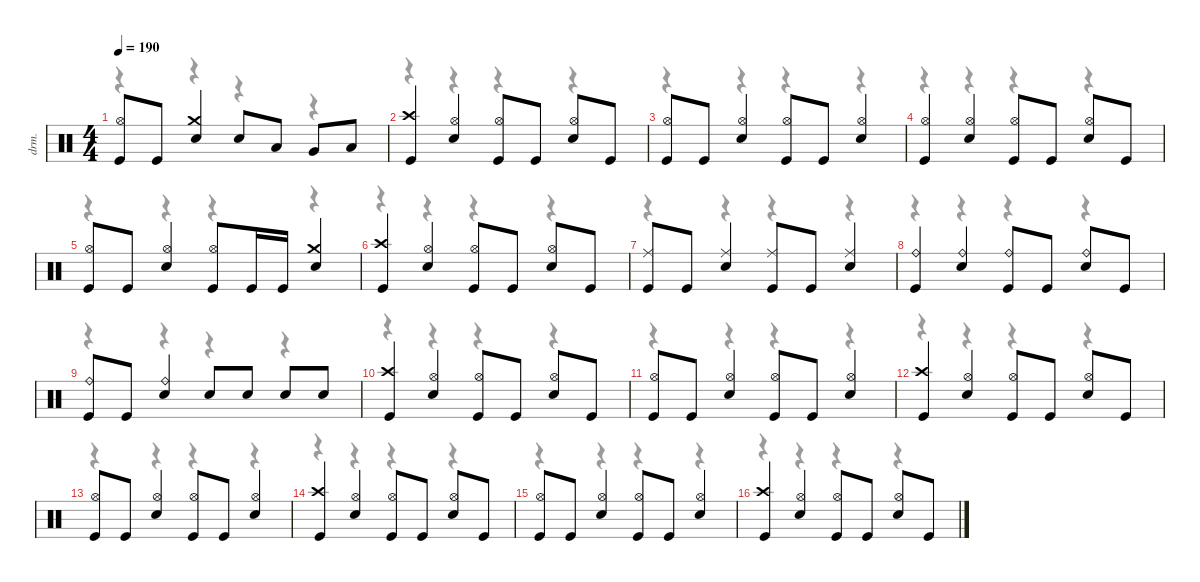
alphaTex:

\defaultSystemsLayout 4
\hideDynamics
\bracketExtendMode nobrackets
\track ("Drums" "drm.") {instrument percussion}
\staff {score}
\articulation defaults
\voice
\ts (4 4)
\tempo 190
\clef neutral
\ks c
("Hi-Hat (open)" "Kick (hit)").8{dy f beam Up} "Kick (hit)".8{beam Up} ("Crash medium (hit)" "Snare (hit) 2").4{beam Up} "Snare (hit) 2".8{beam Up} "Low Tom (hit)".8{beam Up} "Very Low Tom (hit)".8{beam Up} "Low Floor Tom (hit)".8{beam Up} |
("Crash high (hit)" "Kick (hit)").4{beam Up} ("Hi-Hat (open)" "Snare (hit) 2").4{beam Up} ("Hi-Hat (open)" "Kick (hit)").8{beam Up} "Kick (hit)".8{beam Up} ("Hi-Hat (open)" "Snare (hit) 2").8{beam Up} "Kick (hit)".8{beam Up} |
("Hi-Hat (open)" "Kick (hit)").8{beam Up} "Kick (hit)".8{beam Up} ("Hi-Hat (open)" "Snare (hit) 2").4{beam Up} ("Hi-Hat (open)" "Kick (hit)").8{beam Up} "Kick (hit)".8{beam Up} ("Hi-Hat (open)" "Snare (hit) 2").4{beam Up} |
("Hi-Hat (open)" "Kick (hit)").4{beam Up} ("Hi-Hat (open)" "Snare (hit) 2").4{beam Up} ("Hi-Hat (open)" "Kick (hit)").8{beam Up} "Kick (hit)".8{beam Up} ("Hi-Hat (open)" "Snare (hit) 2").8{beam Up} "Kick (hit)".8{beam Up} |
("Hi-Hat (open)" "Kick (hit)").8 "Kick (hit)".8 ("Hi-Hat (open)" "Snare (hit) 2").4 ("Hi-Hat (open)" "Kick (hit)").8 "Kick (hit)".16 "Kick (hit)".16 ("Crash medium (hit)" "Snare (hit) 2").4 |
("Crash high (hit)" "Kick (hit)").4 ("Hi-Hat (open)" "Snare (hit) 2").4 ("Hi-Hat (open)" "Kick (hit)").8 "Kick (hit)".8 ("Hi-Hat (open)" "Snare (hit) 2").8 "Kick (hit)".8 |
("Ride (middle)" "Kick (hit)").8 "Kick (hit)".8 ("Ride (middle)" "Snare (hit) 2").4 ("Ride (middle)" "Kick (hit)").8 "Kick (hit)".8 ("Ride (middle)" "Snare (hit) 2").4 |
("Ride (bell)" "Kick (hit)").4 ("Ride (bell)" "Snare (hit) 2").4 ("Ride (bell)" "Kick (hit)").8 "Kick (hit)".8 ("Ride (bell)" "Snare (hit) 2").8 "Kick (hit)".8 |
("Ride (bell)" "Kick (hit)").8 "Kick (hit)".8 ("Ride (bell)" "Snare (hit) 2").4 "Snare (hit) 2".8 "Snare (hit) 2".8 "Snare (hit) 2".8 "Snare (hit) 2".8 |
("Crash high (hit)" "Kick (hit)").4 ("Hi-Hat (open)" "Snare (hit) 2").4 ("Hi-Hat (open)" "Kick (hit)").8 "Kick (hit)".8 ("Hi-Hat (open)" "Snare (hit) 2").8 "Kick (hit)".8 |
("Hi-Hat (open)" "Kick (hit)").8 "Kick (hit)".8 ("Hi-Hat (open)" "Snare (hit) 2").4 ("Hi-Hat (open)" "Kick (hit)").8 "Kick (hit)".8 ("Hi-Hat (open)" "Snare (hit) 2").4 |
("Crash high (hit)" "Kick (hit)").4 ("Hi-Hat (open)" "Snare (hit) 2").4 ("Hi-Hat (open)" "Kick (hit)").8 "Kick (hit)".8 ("Hi-Hat (open)" "Snare (hit) 2").8 "Kick (hit)".8 |
("Hi-Hat (open)" "Kick (hit)").8 "Kick (hit)".8 ("Hi-Hat (open)" "Snare (hit) 2").4 ("Hi-Hat (open)" "Kick (hit)").8 "Kick (hit)".8 ("Hi-Hat (open)" "Snare (hit) 2").4 |
("Crash high (hit)" "Kick (hit)").4 ("Hi-Hat (open)" "Snare (hit) 2").4 ("Hi-Hat (open)" "Kick (hit)").8 "Kick (hit)".8 ("Hi-Hat (open)" "Snare (hit) 2").8 "Kick (hit)".8 |
("Hi-Hat (open)" "Kick (hit)").8 "Kick (hit)".8 ("Hi-Hat (open)" "Snare (hit) 2").4 ("Hi-Hat (open)" "Kick (hit)").8 "Kick (hit)".8 ("Hi-Hat (open)" "Snare (hit) 2").4 |
("Crash high (hit)" "Kick (hit)").4 ("Hi-Hat (open)" "Snare (hit) 2").4 ("Hi-Hat (open)" "Kick (hit)").8 "Kick (hit)".8 ("Hi-Hat (open)" "Snare (hit) 2").8 "Kick (hit)".8
\voice
\clef neutral
\ottava regular
\simile none
\ks c
r.4{dy mf beam Down} r.4{beam Down} r.4{beam Down} r.4{beam Down} |
r.4{beam Down} r.4{beam Down} r.4{beam Down} r.4{beam Down} |
r.4{beam Down} r.4{beam Down} r.4{beam Down} r.4{beam Down} |
r.4{beam Down} r.4{beam Down} r.4{beam Down} r.4{beam Down} |
r.4 r.4 r.4 r.4 |
r.4 r.4 r.4 r.4 |
r.4 r.4 r.4 r.4 |
r.4 r.4 r.4 r.4 |
r.4 r.4 r.4 r.4 |
r.4 r.4 r.4 r.4 |
r.4 r.4 r.4 r.4 |
r.4 r.4 r.4 r.4 |
r.4 r.4 r.4 r.4 |
r.4 r.4 r.4 r.4 |
r.4 r.4 r.4 r.4 |
r.4 r.4 r.4 r.4
